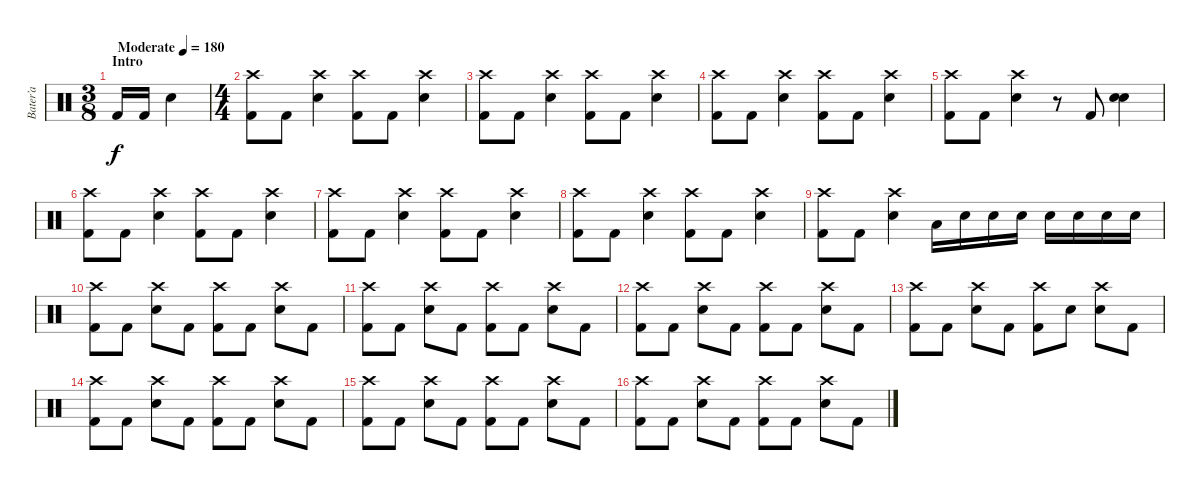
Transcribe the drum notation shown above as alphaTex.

\track ("Bater’a" "Bater’a") {instrument percussion bank 211}
\staff {score}
\articulation defaults
\ts (3 8)
\section ("" "Intro")
\tempo (180 "Moderate")
\clef neutral
\ks c "Kick (hit) 2".16{dy f} "Kick (hit) 2".16 "Electric Snare (hit)".4
|
\ts (4 4)
("Crash high (hit)" "Kick (hit) 2").8 "Kick (hit) 2".8 ("Crash high (hit)" "Electric Snare (hit)").4 ("Crash high (hit)" "Kick (hit) 2").8 "Kick (hit) 2".8 ("Crash high (hit)" "Electric Snare (hit)").4 |
("Crash high (hit)" "Kick (hit) 2").8 "Kick (hit) 2".8 ("Crash high (hit)" "Electric Snare (hit)").4 ("Crash high (hit)" "Kick (hit) 2").8 "Kick (hit) 2".8 ("Crash high (hit)" "Electric Snare (hit)").4 |
("Crash high (hit)" "Kick (hit) 2").8 "Kick (hit) 2".8 ("Crash high (hit)" "Electric Snare (hit)").4 ("Crash high (hit)" "Kick (hit) 2").8 "Kick (hit) 2".8 ("Crash high (hit)" "Electric Snare (hit)").4 |
("Crash high (hit)" "Kick (hit) 2").8 "Kick (hit) 2".8 ("Crash high (hit)" "Electric Snare (hit)").4 r.8 "Kick (hit) 2".8 ("Electric Snare (hit)" "Electric Snare (hit)").4 |
("Crash high (hit)" "Kick (hit) 2").8 "Kick (hit) 2".8 ("Crash high (hit)" "Electric Snare (hit)").4 ("Crash high (hit)" "Kick (hit) 2").8 "Kick (hit) 2".8 ("Crash high (hit)" "Electric Snare (hit)").4 |
("Crash high (hit)" "Kick (hit) 2").8 "Kick (hit) 2".8 ("Crash high (hit)" "Electric Snare (hit)").4 ("Crash high (hit)" "Kick (hit) 2").8 "Kick (hit) 2".8 ("Crash high (hit)" "Electric Snare (hit)").4 |
("Crash high (hit)" "Kick (hit) 2").8 "Kick (hit) 2".8 ("Crash high (hit)" "Electric Snare (hit)").4 ("Crash high (hit)" "Kick (hit) 2").8 "Kick (hit) 2".8 ("Crash high (hit)" "Electric Snare (hit)").4 |
("Crash high (hit)" "Kick (hit) 2").8 "Kick (hit) 2".8 ("Crash high (hit)" "Electric Snare (hit)").4 "Low Tom (hit)".16 "Electric Snare (hit)".16 "Electric Snare (hit)".16 "Electric Snare (hit)".16 "Electric Snare (hit)".16 "Electric Snare (hit)".16 "Electric Snare (hit)".16 "Electric Snare (hit)".16 |
("Crash high (hit)" "Kick (hit) 2").8 "Kick (hit) 2".8 ("Crash high (hit)" "Electric Snare (hit)").8 "Kick (hit) 2".8 ("Crash high (hit)" "Kick (hit) 2").8 "Kick (hit) 2".8 ("Crash high (hit)" "Electric Snare (hit)").8 "Kick (hit) 2".8 |
("Crash high (hit)" "Kick (hit) 2").8 "Kick (hit) 2".8 ("Crash high (hit)" "Electric Snare (hit)").8 "Kick (hit) 2".8 ("Crash high (hit)" "Kick (hit) 2").8 "Kick (hit) 2".8 ("Crash high (hit)" "Electric Snare (hit)").8 "Kick (hit) 2".8 |
("Crash high (hit)" "Kick (hit) 2").8 "Kick (hit) 2".8 ("Crash high (hit)" "Electric Snare (hit)").8 "Kick (hit) 2".8 ("Crash high (hit)" "Kick (hit) 2").8 "Kick (hit) 2".8 ("Crash high (hit)" "Electric Snare (hit)").8 "Kick (hit) 2".8 |
("Crash high (hit)" "Kick (hit) 2").8 "Kick (hit) 2".8 ("Crash high (hit)" "Electric Snare (hit)").8 "Kick (hit) 2".8 ("Crash high (hit)" "Kick (hit) 2").8 "Electric Snare (hit)".8 ("Crash high (hit)" "Electric Snare (hit)").8 "Kick (hit) 2".8 |
("Crash high (hit)" "Kick (hit) 2").8 "Kick (hit) 2".8 ("Crash high (hit)" "Electric Snare (hit)").8 "Kick (hit) 2".8 ("Crash high (hit)" "Kick (hit) 2").8 "Kick (hit) 2".8 ("Crash high (hit)" "Electric Snare (hit)").8 "Kick (hit) 2".8 |
("Crash high (hit)" "Kick (hit) 2").8 "Kick (hit) 2".8 ("Crash high (hit)" "Electric Snare (hit)").8 "Kick (hit) 2".8 ("Crash high (hit)" "Kick (hit) 2").8 "Kick (hit) 2".8 ("Crash high (hit)" "Electric Snare (hit)").8 "Kick (hit) 2".8 |
("Crash high (hit)" "Kick (hit) 2").8 "Kick (hit) 2".8 ("Crash high (hit)" "Electric Snare (hit)").8 "Kick (hit) 2".8 ("Crash high (hit)" "Kick (hit) 2").8 "Kick (hit) 2".8 ("Crash high (hit)" "Electric Snare (hit)").8 "Kick (hit) 2".8
